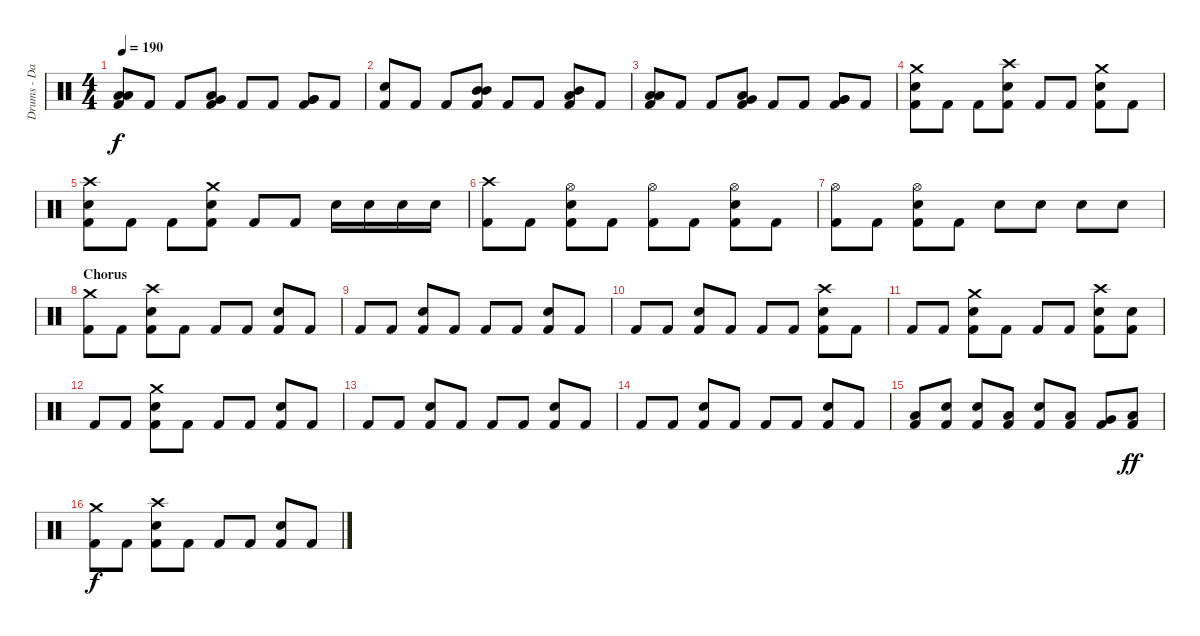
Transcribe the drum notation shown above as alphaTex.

\track ("Drums - Daniel Zimmermann" "Drums - Da") {instrument percussion}
\staff {score}
\articulation defaults
\ts (4 4)
\tempo 190
\clef neutral
\ks c
("Kick (hit) 2" "Low Tom (hit)" "Low Tom (hit)").8{dy f} "Kick (hit) 2".8 "Kick (hit) 2".8 ("Kick (hit) 2" "Low Tom (hit)" "Very Low Tom (hit)").8 "Kick (hit) 2".8 "Kick (hit) 2".8 ("Kick (hit) 2" "Very Low Tom (hit)" "Very Low Tom (hit)").8 "Kick (hit) 2".8 |
("Kick (hit) 2" "Electric Snare (hit)").8 "Kick (hit) 2".8 "Kick (hit) 2".8 ("Kick (hit) 2" "Mid Tom (hit)" "Mid Tom (hit)").8 "Kick (hit) 2".8 "Kick (hit) 2".8 ("Kick (hit) 2" "Mid Tom (hit)" "Low Tom (hit)").8 "Kick (hit) 2".8 |
("Kick (hit) 2" "Low Tom (hit)" "Low Tom (hit)").8 "Kick (hit) 2".8 "Kick (hit) 2".8 ("Kick (hit) 2" "Low Tom (hit)" "Very Low Tom (hit)").8 "Kick (hit) 2".8 "Kick (hit) 2".8 ("Kick (hit) 2" "Very Low Tom (hit)" "Very Low Tom (hit)").8 "Kick (hit) 2".8 |
("Kick (hit) 2" "Electric Snare (hit)" "Crash medium (hit)").8 "Kick (hit) 2".8 "Kick (hit) 2".8 ("Kick (hit) 2" "Electric Snare (hit)" "Crash high (hit)").8 "Kick (hit) 2".8 "Kick (hit) 2".8 ("Kick (hit) 2" "Electric Snare (hit)" "Crash medium (hit)").8 "Kick (hit) 2".8 |
("Kick (hit) 2" "Electric Snare (hit)" "Crash high (hit)").8 "Kick (hit) 2".8 "Kick (hit) 2".8 ("Kick (hit) 2" "Electric Snare (hit)" "Crash medium (hit)").8 "Kick (hit) 2".8 "Kick (hit) 2".8 "Electric Snare (hit)".16 "Electric Snare (hit)".16 "Electric Snare (hit)".16 "Electric Snare (hit)".16 |
("Kick (hit) 2" "Crash high (hit)").8 "Kick (hit) 2".8 ("Kick (hit) 2" "Electric Snare (hit)" "Hi-Hat (open)").8 "Kick (hit) 2".8 ("Kick (hit) 2" "Hi-Hat (open)").8 "Kick (hit) 2".8 ("Kick (hit) 2" "Electric Snare (hit)" "Hi-Hat (open)").8 "Kick (hit) 2".8 |
("Kick (hit) 2" "Hi-Hat (open)").8 "Kick (hit) 2".8 ("Kick (hit) 2" "Electric Snare (hit)" "Hi-Hat (open)").8 "Kick (hit) 2".8 "Electric Snare (hit)".8 "Electric Snare (hit)".8 "Electric Snare (hit)".8 "Electric Snare (hit)".8 |
\section ("" "Chorus")
("Kick (hit) 2" "Crash medium (hit)").8 "Kick (hit) 2".8 ("Kick (hit) 2" "Electric Snare (hit)" "Crash high (hit)").8 "Kick (hit) 2".8 "Kick (hit) 2".8 "Kick (hit) 2".8 ("Kick (hit) 2" "Electric Snare (hit)").8 "Kick (hit) 2".8 |
"Kick (hit) 2".8 "Kick (hit) 2".8 ("Kick (hit) 2" "Electric Snare (hit)").8 "Kick (hit) 2".8 "Kick (hit) 2".8 "Kick (hit) 2".8 ("Kick (hit) 2" "Electric Snare (hit)").8 "Kick (hit) 2".8 |
"Kick (hit) 2".8 "Kick (hit) 2".8 ("Kick (hit) 2" "Electric Snare (hit)").8 "Kick (hit) 2".8 "Kick (hit) 2".8 "Kick (hit) 2".8 ("Kick (hit) 2" "Electric Snare (hit)" "Crash high (hit)").8 "Kick (hit) 2".8 |
"Kick (hit) 2".8 "Kick (hit) 2".8 ("Kick (hit) 2" "Electric Snare (hit)" "Crash medium (hit)").8 "Kick (hit) 2".8 "Kick (hit) 2".8 "Kick (hit) 2".8 ("Kick (hit) 2" "Electric Snare (hit)" "Crash high (hit)").8 ("Kick (hit) 2" "Electric Snare (hit)").8 |
"Kick (hit) 2".8 "Kick (hit) 2".8 ("Kick (hit) 2" "Electric Snare (hit)" "Crash medium (hit)").8 "Kick (hit) 2".8 "Kick (hit) 2".8 "Kick (hit) 2".8 ("Kick (hit) 2" "Electric Snare (hit)").8 "Kick (hit) 2".8 |
"Kick (hit) 2".8 "Kick (hit) 2".8 ("Kick (hit) 2" "Electric Snare (hit)").8 "Kick (hit) 2".8 "Kick (hit) 2".8 "Kick (hit) 2".8 ("Kick (hit) 2" "Electric Snare (hit)").8 "Kick (hit) 2".8 |
"Kick (hit) 2".8 "Kick (hit) 2".8 ("Kick (hit) 2" "Electric Snare (hit)").8 "Kick (hit) 2".8 "Kick (hit) 2".8 "Kick (hit) 2".8 ("Kick (hit) 2" "Electric Snare (hit)").8 "Kick (hit) 2".8 |
("Kick (hit) 2" "Low Tom (hit)").8 ("Kick (hit) 2" "Electric Snare (hit)").8 ("Kick (hit) 2" "Electric Snare (hit)").8 ("Kick (hit) 2" "Low Tom (hit)").8 ("Kick (hit) 2" "Electric Snare (hit)").8 ("Kick (hit) 2" "Low Tom (hit)").8 ("Kick (hit) 2" "Very Low Tom (hit)").8 ("Kick (hit) 2" "Low Floor Tom (hit)").8{dy ff} |
("Kick (hit) 2" "Crash medium (hit)").8{dy f} "Kick (hit) 2".8 ("Kick (hit) 2" "Electric Snare (hit)" "Crash high (hit)").8 "Kick (hit) 2".8 "Kick (hit) 2".8 "Kick (hit) 2".8 ("Kick (hit) 2" "Electric Snare (hit)").8 "Kick (hit) 2".8
